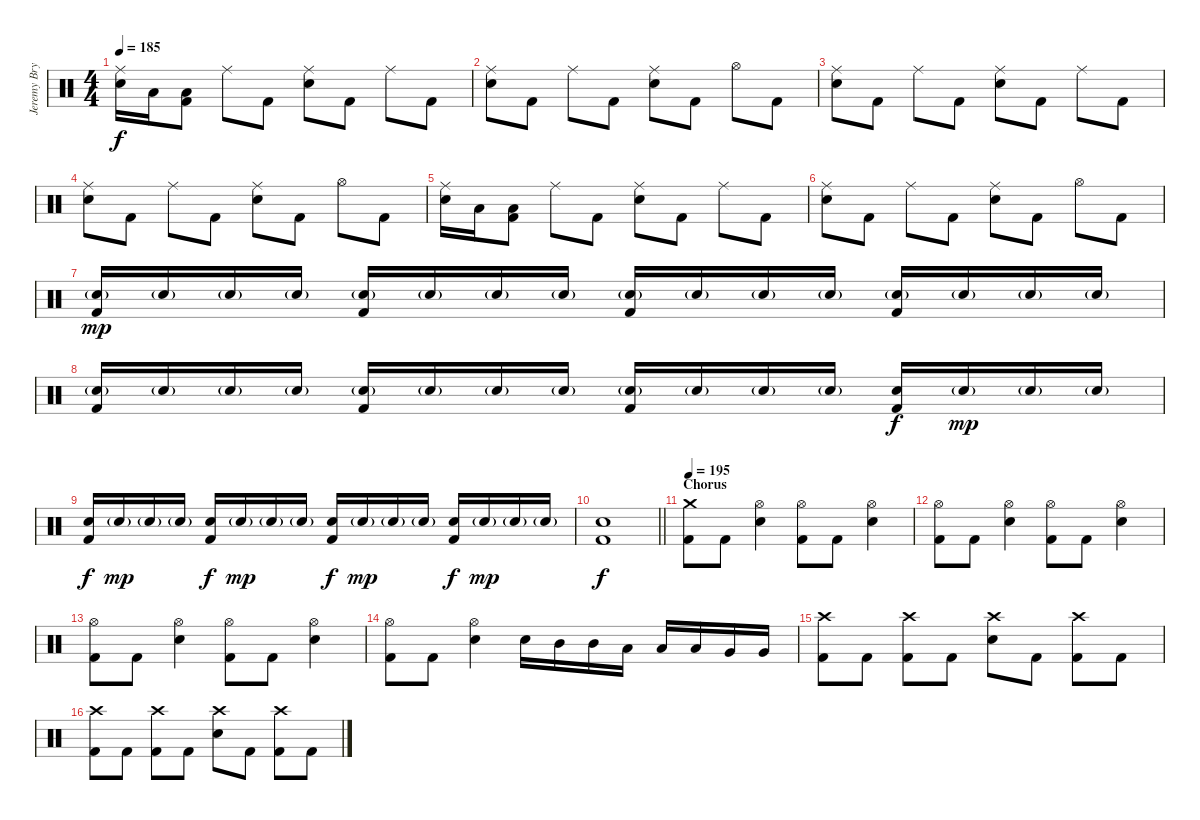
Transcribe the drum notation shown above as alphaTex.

\track ("Jeremy Bryan - Drums" "Jeremy Bry") {instrument percussion}
\staff {score}
\articulation defaults
\ts (4 4)
\tempo 185
\clef neutral
\ks c
("Ride (middle)" "Electric Snare (hit)").16{dy f} "Low Tom (hit)".16 ("Low Tom (hit)" "Kick (hit) 2").8 "Ride (middle)".8 "Kick (hit) 2".8 ("Ride (middle)" "Electric Snare (hit)").8 "Kick (hit) 2".8 "Ride (middle)".8 "Kick (hit) 2".8 |
("Ride (middle)" "Electric Snare (hit)").8 "Kick (hit) 2".8 "Ride (middle)".8 "Kick (hit) 2".8 ("Ride (middle)" "Electric Snare (hit)").8 "Kick (hit) 2".8 "Hi-Hat (open)".8 "Kick (hit) 2".8 |
("Ride (middle)" "Electric Snare (hit)").8 "Kick (hit) 2".8 "Ride (middle)".8 "Kick (hit) 2".8 ("Ride (middle)" "Electric Snare (hit)").8 "Kick (hit) 2".8 "Ride (middle)".8 "Kick (hit) 2".8 |
("Ride (middle)" "Electric Snare (hit)").8 "Kick (hit) 2".8 "Ride (middle)".8 "Kick (hit) 2".8 ("Ride (middle)" "Electric Snare (hit)").8 "Kick (hit) 2".8 "Hi-Hat (open)".8 "Kick (hit) 2".8 |
("Ride (middle)" "Electric Snare (hit)").16 "Low Tom (hit)".16 ("Low Tom (hit)" "Kick (hit) 2").8 "Ride (middle)".8 "Kick (hit) 2".8 ("Ride (middle)" "Electric Snare (hit)").8 "Kick (hit) 2".8 "Ride (middle)".8 "Kick (hit) 2".8 |
("Ride (middle)" "Electric Snare (hit)").8 "Kick (hit) 2".8 "Ride (middle)".8 "Kick (hit) 2".8 ("Ride (middle)" "Electric Snare (hit)").8 "Kick (hit) 2".8 "Hi-Hat (open)".8 "Kick (hit) 2".8 |
("Electric Snare (hit)"{g} "Kick (hit) 2").16{dy mp volume 9} "Electric Snare (hit)"{g}.16 "Electric Snare (hit)"{g}.16 "Electric Snare (hit)"{g}.16 ("Electric Snare (hit)"{g} "Kick (hit) 2").16 "Electric Snare (hit)"{g}.16 "Electric Snare (hit)"{g}.16 "Electric Snare (hit)"{g}.16 ("Electric Snare (hit)"{g} "Kick (hit) 2").16 "Electric Snare (hit)"{g}.16 "Electric Snare (hit)"{g}.16 "Electric Snare (hit)"{g}.16 ("Electric Snare (hit)"{g} "Kick (hit) 2").16{volume 14} "Electric Snare (hit)"{g}.16 "Electric Snare (hit)"{g}.16 "Electric Snare (hit)"{g}.16 |
("Electric Snare (hit)"{g} "Kick (hit) 2").16 "Electric Snare (hit)"{g}.16 "Electric Snare (hit)"{g}.16 "Electric Snare (hit)"{g}.16 ("Electric Snare (hit)"{g} "Kick (hit) 2").16 "Electric Snare (hit)"{g}.16 "Electric Snare (hit)"{g}.16 "Electric Snare (hit)"{g}.16 ("Electric Snare (hit)"{g} "Kick (hit) 2").16 "Electric Snare (hit)"{g}.16 "Electric Snare (hit)"{g}.16 "Electric Snare (hit)"{g}.16 ("Electric Snare (hit)" "Kick (hit) 2").16{dy f} "Electric Snare (hit)"{g}.16{dy mp} "Electric Snare (hit)"{g}.16 "Electric Snare (hit)"{g}.16 |
("Electric Snare (hit)" "Kick (hit) 2").16{dy f} "Electric Snare (hit)"{g}.16{dy mp} "Electric Snare (hit)"{g}.16 "Electric Snare (hit)"{g}.16 ("Electric Snare (hit)" "Kick (hit) 2").16{dy f} "Electric Snare (hit)"{g}.16{dy mp} "Electric Snare (hit)"{g}.16 "Electric Snare (hit)"{g}.16 ("Electric Snare (hit)" "Kick (hit) 2").16{dy f} "Electric Snare (hit)"{g}.16{dy mp} "Electric Snare (hit)"{g}.16 "Electric Snare (hit)"{g}.16 ("Electric Snare (hit)" "Kick (hit) 2").16{dy f} "Electric Snare (hit)"{g}.16{dy mp} "Electric Snare (hit)"{g}.16 "Electric Snare (hit)"{g}.16 |
\barLineRight lightlight
("Electric Snare (hit)" "Kick (hit) 2").1{dy f volume 12} |
\section ("" "Chorus")
\tempo 195
("Crash medium (hit)" "Kick (hit) 2").8 "Kick (hit) 2".8 ("Hi-Hat (open)" "Electric Snare (hit)").4 ("Hi-Hat (open)" "Kick (hit) 2").8 "Kick (hit) 2".8 ("Hi-Hat (open)" "Electric Snare (hit)").4 |
("Hi-Hat (open)" "Kick (hit) 2").8 "Kick (hit) 2".8 ("Hi-Hat (open)" "Electric Snare (hit)").4 ("Hi-Hat (open)" "Kick (hit) 2").8 "Kick (hit) 2".8 ("Hi-Hat (open)" "Electric Snare (hit)").4 |
("Hi-Hat (open)" "Kick (hit) 2").8 "Kick (hit) 2".8 ("Hi-Hat (open)" "Electric Snare (hit)").4 ("Hi-Hat (open)" "Kick (hit) 2").8 "Kick (hit) 2".8 ("Hi-Hat (open)" "Electric Snare (hit)").4 |
("Hi-Hat (open)" "Kick (hit) 2").8 "Kick (hit) 2".8 ("Hi-Hat (open)" "Electric Snare (hit)").4 "Electric Snare (hit)".16 "Mid Tom (hit)".16 "Mid Tom (hit)".16 "Low Tom (hit)".16 "Low Tom (hit)".16 "Low Tom (hit)".16 "Very Low Tom (hit)".16 "Very Low Tom (hit)".16 |
("Crash high (hit)" "Kick (hit) 2").8 "Kick (hit) 2".8 ("Crash high (hit)" "Kick (hit) 2").8 "Kick (hit) 2".8 ("Crash high (hit)" "Electric Snare (hit)").8 "Kick (hit) 2".8 ("Crash high (hit)" "Kick (hit) 2").8 "Kick (hit) 2".8 |
("Crash high (hit)" "Kick (hit) 2").8 "Kick (hit) 2".8 ("Crash high (hit)" "Kick (hit) 2").8 "Kick (hit) 2".8 ("Crash high (hit)" "Electric Snare (hit)").8 "Kick (hit) 2".8 ("Crash high (hit)" "Kick (hit) 2").8 "Kick (hit) 2".8
